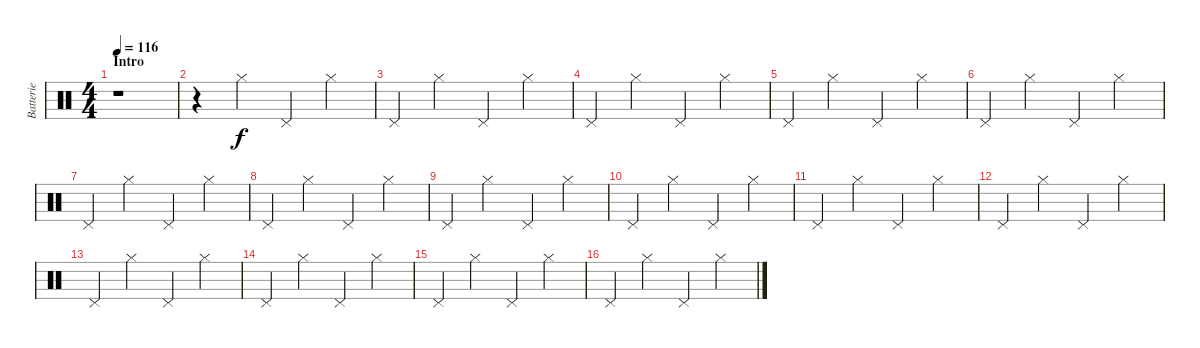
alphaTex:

\track ("Batterie" "Batterie") {instrument percussion}
\staff {score}
\articulation defaults
\ts (4 4)
\section ("" "Intro")
\tempo 116
\clef neutral
\ks c
r.1{dy f} |
r.4 "Hi-Hat (closed)".4 "Pedal Hi-Hat (hit)".4 "Hi-Hat (closed)".4 |
"Pedal Hi-Hat (hit)".4 "Hi-Hat (closed)".4 "Pedal Hi-Hat (hit)".4 "Hi-Hat (closed)".4 |
"Pedal Hi-Hat (hit)".4 "Hi-Hat (closed)".4 "Pedal Hi-Hat (hit)".4 "Hi-Hat (closed)".4 |
"Pedal Hi-Hat (hit)".4 "Hi-Hat (closed)".4 "Pedal Hi-Hat (hit)".4 "Hi-Hat (closed)".4 |
"Pedal Hi-Hat (hit)".4 "Hi-Hat (closed)".4 "Pedal Hi-Hat (hit)".4 "Hi-Hat (closed)".4 |
"Pedal Hi-Hat (hit)".4 "Hi-Hat (closed)".4 "Pedal Hi-Hat (hit)".4 "Hi-Hat (closed)".4 |
"Pedal Hi-Hat (hit)".4 "Hi-Hat (closed)".4 "Pedal Hi-Hat (hit)".4 "Hi-Hat (closed)".4 |
"Pedal Hi-Hat (hit)".4 "Hi-Hat (closed)".4 "Pedal Hi-Hat (hit)".4 "Hi-Hat (closed)".4 |
"Pedal Hi-Hat (hit)".4 "Hi-Hat (closed)".4 "Pedal Hi-Hat (hit)".4 "Hi-Hat (closed)".4 |
"Pedal Hi-Hat (hit)".4 "Hi-Hat (closed)".4 "Pedal Hi-Hat (hit)".4 "Hi-Hat (closed)".4 |
"Pedal Hi-Hat (hit)".4 "Hi-Hat (closed)".4 "Pedal Hi-Hat (hit)".4 "Hi-Hat (closed)".4 |
"Pedal Hi-Hat (hit)".4 "Hi-Hat (closed)".4 "Pedal Hi-Hat (hit)".4 "Hi-Hat (closed)".4 |
"Pedal Hi-Hat (hit)".4 "Hi-Hat (closed)".4 "Pedal Hi-Hat (hit)".4 "Hi-Hat (closed)".4 |
"Pedal Hi-Hat (hit)".4 "Hi-Hat (closed)".4 "Pedal Hi-Hat (hit)".4 "Hi-Hat (closed)".4 |
"Pedal Hi-Hat (hit)".4 "Hi-Hat (closed)".4 "Pedal Hi-Hat (hit)".4 "Hi-Hat (closed)".4
